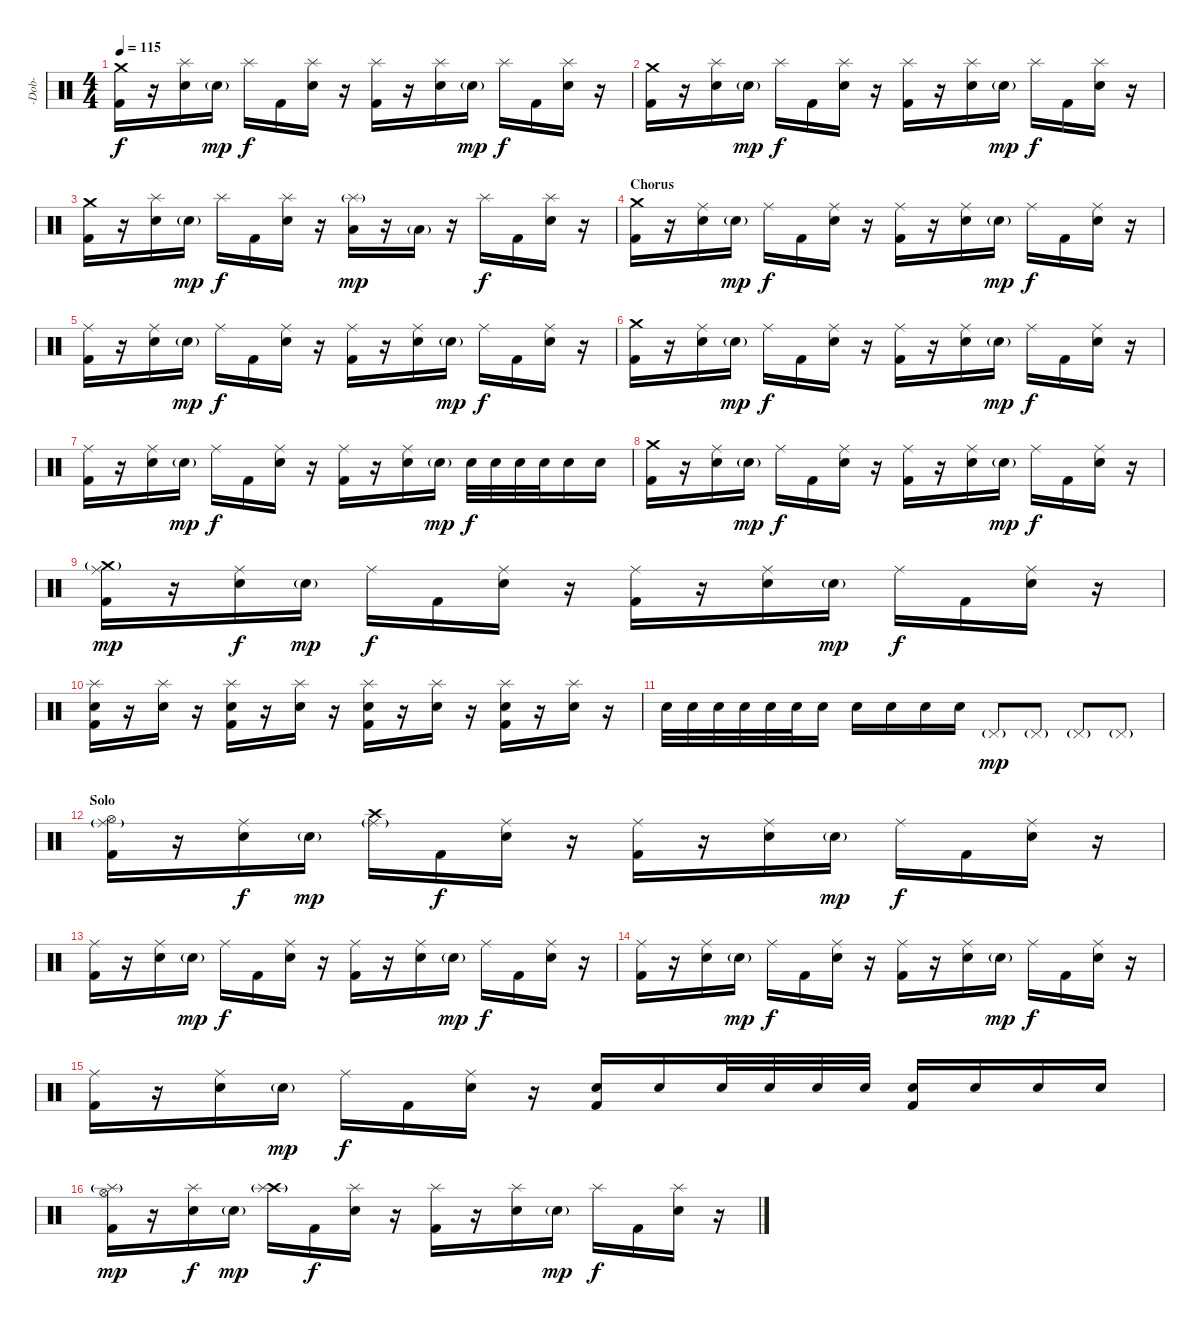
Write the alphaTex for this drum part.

\track ("-Dob-" "-Dob-") {instrument percussion}
\staff {score}
\articulation defaults
\ts (4 4)
\tempo 115
\clef neutral
\ks c
("Crash medium (hit)" "Kick (hit) 2").16{dy f} r.16 ("Splash (hit)" "Snare (hit) 2").16 "Snare (hit) 2"{g}.16{dy mp} "Splash (hit)".16{dy f} "Kick (hit) 2".16 ("Splash (hit)" "Snare (hit) 2").16 r.16 ("Splash (hit)" "Kick (hit) 2").16 r.16 ("Splash (hit)" "Snare (hit) 2").16 "Snare (hit) 2"{g}.16{dy mp} "Splash (hit)".16{dy f} "Kick (hit) 2".16 ("Splash (hit)" "Snare (hit) 2").16 r.16 |
("Crash medium (hit)" "Kick (hit) 2").16 r.16 ("Splash (hit)" "Snare (hit) 2").16 "Snare (hit) 2"{g}.16{dy mp} "Splash (hit)".16{dy f} "Kick (hit) 2".16 ("Splash (hit)" "Snare (hit) 2").16 r.16 ("Splash (hit)" "Kick (hit) 2").16 r.16 ("Splash (hit)" "Snare (hit) 2").16 "Snare (hit) 2"{g}.16{dy mp} "Splash (hit)".16{dy f} "Kick (hit) 2".16 ("Splash (hit)" "Snare (hit) 2").16 r.16 |
("Crash medium (hit)" "Kick (hit) 2").16 r.16 ("Splash (hit)" "Snare (hit) 2").16 "Snare (hit) 2"{g}.16{dy mp} "Splash (hit)".16{dy f} "Kick (hit) 2".16 ("Splash (hit)" "Snare (hit) 2").16 r.16 ("Splash (hit)"{g} "Low Floor Tom (hit)").16{dy mp} r.16 "Low Floor Tom (hit)"{g}.16 r.16 "Splash (hit)".16{dy f} "Kick (hit) 2".16 ("Splash (hit)" "Snare (hit) 2").16 r.16 |
\section ("" "Chorus")
("Crash medium (hit)" "Kick (hit) 2").16 r.16 ("Ride (middle)" "Snare (hit) 2").16 "Snare (hit) 2"{g}.16{dy mp} "Ride (middle)".16{dy f} "Kick (hit) 2".16 ("Ride (middle)" "Snare (hit) 2").16 r.16 ("Ride (middle)" "Kick (hit) 2").16 r.16 ("Ride (middle)" "Snare (hit) 2").16 "Snare (hit) 2"{g}.16{dy mp} "Ride (middle)".16{dy f} "Kick (hit) 2".16 ("Ride (middle)" "Snare (hit) 2").16 r.16 |
("Ride (middle)" "Kick (hit) 2").16 r.16 ("Ride (middle)" "Snare (hit) 2").16 "Snare (hit) 2"{g}.16{dy mp} "Ride (middle)".16{dy f} "Kick (hit) 2".16 ("Ride (middle)" "Snare (hit) 2").16 r.16 ("Ride (middle)" "Kick (hit) 2").16 r.16 ("Ride (middle)" "Snare (hit) 2").16 "Snare (hit) 2"{g}.16{dy mp} "Ride (middle)".16{dy f} "Kick (hit) 2".16 ("Ride (middle)" "Snare (hit) 2").16 r.16 |
("Crash medium (hit)" "Kick (hit) 2").16 r.16 ("Ride (middle)" "Snare (hit) 2").16 "Snare (hit) 2"{g}.16{dy mp} "Ride (middle)".16{dy f} "Kick (hit) 2".16 ("Ride (middle)" "Snare (hit) 2").16 r.16 ("Ride (middle)" "Kick (hit) 2").16 r.16 ("Ride (middle)" "Snare (hit) 2").16 "Snare (hit) 2"{g}.16{dy mp} "Ride (middle)".16{dy f} "Kick (hit) 2".16 ("Ride (middle)" "Snare (hit) 2").16 r.16 |
("Ride (middle)" "Kick (hit) 2").16 r.16 ("Ride (middle)" "Snare (hit) 2").16 "Snare (hit) 2"{g}.16{dy mp} "Ride (middle)".16{dy f} "Kick (hit) 2".16 ("Ride (middle)" "Snare (hit) 2").16 r.16 ("Ride (middle)" "Kick (hit) 2").16 r.16 ("Ride (middle)" "Snare (hit) 2").16 "Snare (hit) 2"{g}.16{dy mp} "Snare (hit) 2".32{dy f} "Snare (hit) 2".32 "Snare (hit) 2".32 "Snare (hit) 2".32 "Snare (hit) 2".16 "Snare (hit) 2".16 |
("Crash medium (hit)" "Kick (hit) 2").16 r.16 ("Ride (middle)" "Snare (hit) 2").16 "Snare (hit) 2"{g}.16{dy mp} "Ride (middle)".16{dy f} "Kick (hit) 2".16 ("Ride (middle)" "Snare (hit) 2").16 r.16 ("Ride (middle)" "Kick (hit) 2").16 r.16 ("Ride (middle)" "Snare (hit) 2").16 "Snare (hit) 2"{g}.16{dy mp} "Ride (middle)".16{dy f} "Kick (hit) 2".16 ("Ride (middle)" "Snare (hit) 2").16 r.16 |
("Crash medium (hit)"{g} "Ride (middle)" "Kick (hit) 2").16{dy mp} r.16 ("Ride (middle)" "Snare (hit) 2").16{dy f} "Snare (hit) 2"{g}.16{dy mp} "Ride (middle)".16{dy f} "Kick (hit) 2".16 ("Ride (middle)" "Snare (hit) 2").16 r.16 ("Ride (middle)" "Kick (hit) 2").16 r.16 ("Ride (middle)" "Snare (hit) 2").16 "Snare (hit) 2"{g}.16{dy mp} "Ride (middle)".16{dy f} "Kick (hit) 2".16 ("Ride (middle)" "Snare (hit) 2").16 r.16 |
("Splash (hit)" "Snare (hit) 2" "Kick (hit) 2").16 r.16 ("Splash (hit)" "Snare (hit) 2").16 r.16 ("Splash (hit)" "Snare (hit) 2" "Kick (hit) 2").16 r.16 ("Splash (hit)" "Snare (hit) 2").16 r.16 ("Splash (hit)" "Snare (hit) 2" "Kick (hit) 2").16 r.16 ("Splash (hit)" "Snare (hit) 2").16 r.16 ("Splash (hit)" "Snare (hit) 2" "Kick (hit) 2").16 r.16 ("Splash (hit)" "Snare (hit) 2").16 r.16 |
"Snare (hit) 2".32 "Snare (hit) 2".32 "Snare (hit) 2".32 "Snare (hit) 2".32 "Snare (hit) 2".32 "Snare (hit) 2".32 "Snare (hit) 2".16 "Snare (hit) 2".16 "Snare (hit) 2".16 "Snare (hit) 2".16 "Snare (hit) 2".16 "Pedal Hi-Hat (hit)"{g}.8{dy mp} "Pedal Hi-Hat (hit)"{g}.8 "Pedal Hi-Hat (hit)"{g}.8 "Pedal Hi-Hat (hit)"{g}.8 |
\section ("" "Solo")
("Hi-Hat (open)" "Ride (middle)"{g} "Kick (hit) 2").16 r.16 ("Ride (middle)" "Snare (hit) 2").16{dy f} "Snare (hit) 2"{g}.16{dy mp} ("Crash high (hit)" "Ride (middle)"{g}).16 "Kick (hit) 2".16{dy f} ("Ride (middle)" "Snare (hit) 2").16 r.16 ("Ride (middle)" "Kick (hit) 2").16 r.16 ("Ride (middle)" "Snare (hit) 2").16 "Snare (hit) 2"{g}.16{dy mp} "Ride (middle)".16{dy f} "Kick (hit) 2".16 ("Ride (middle)" "Snare (hit) 2").16 r.16 |
("Ride (middle)" "Kick (hit) 2").16 r.16 ("Ride (middle)" "Snare (hit) 2").16 "Snare (hit) 2"{g}.16{dy mp} "Ride (middle)".16{dy f} "Kick (hit) 2".16 ("Ride (middle)" "Snare (hit) 2").16 r.16 ("Ride (middle)" "Kick (hit) 2").16 r.16 ("Ride (middle)" "Snare (hit) 2").16 "Snare (hit) 2"{g}.16{dy mp} "Ride (middle)".16{dy f} "Kick (hit) 2".16 ("Ride (middle)" "Snare (hit) 2").16 r.16 |
("Ride (middle)" "Kick (hit) 2").16 r.16 ("Ride (middle)" "Snare (hit) 2").16 "Snare (hit) 2"{g}.16{dy mp} "Ride (middle)".16{dy f} "Kick (hit) 2".16 ("Ride (middle)" "Snare (hit) 2").16 r.16 ("Ride (middle)" "Kick (hit) 2").16 r.16 ("Ride (middle)" "Snare (hit) 2").16 "Snare (hit) 2"{g}.16{dy mp} "Ride (middle)".16{dy f} "Kick (hit) 2".16 ("Ride (middle)" "Snare (hit) 2").16 r.16 |
("Ride (middle)" "Kick (hit) 2").16 r.16 ("Ride (middle)" "Snare (hit) 2").16 "Snare (hit) 2"{g}.16{dy mp} "Ride (middle)".16{dy f} "Kick (hit) 2".16 ("Ride (middle)" "Snare (hit) 2").16 r.16 ("Snare (hit) 2" "Kick (hit) 2").16 "Snare (hit) 2".16 "Snare (hit) 2".32 "Snare (hit) 2".32 "Snare (hit) 2".32 "Snare (hit) 2".32 ("Snare (hit) 2" "Kick (hit) 2").16 "Snare (hit) 2".16 "Snare (hit) 2".16 "Snare (hit) 2".16 |
("Hi-Hat (open)" "Splash (hit)"{g} "Kick (hit) 2").16{dy mp} r.16 ("Splash (hit)" "Snare (hit) 2").16{dy f} "Snare (hit) 2"{g}.16{dy mp} ("Crash high (hit)" "Splash (hit)"{g}).16 "Kick (hit) 2".16{dy f} ("Splash (hit)" "Snare (hit) 2").16 r.16 ("Splash (hit)" "Kick (hit) 2").16 r.16 ("Splash (hit)" "Snare (hit) 2").16 "Snare (hit) 2"{g}.16{dy mp} "Splash (hit)".16{dy f} "Kick (hit) 2".16 ("Splash (hit)" "Snare (hit) 2").16 r.16
